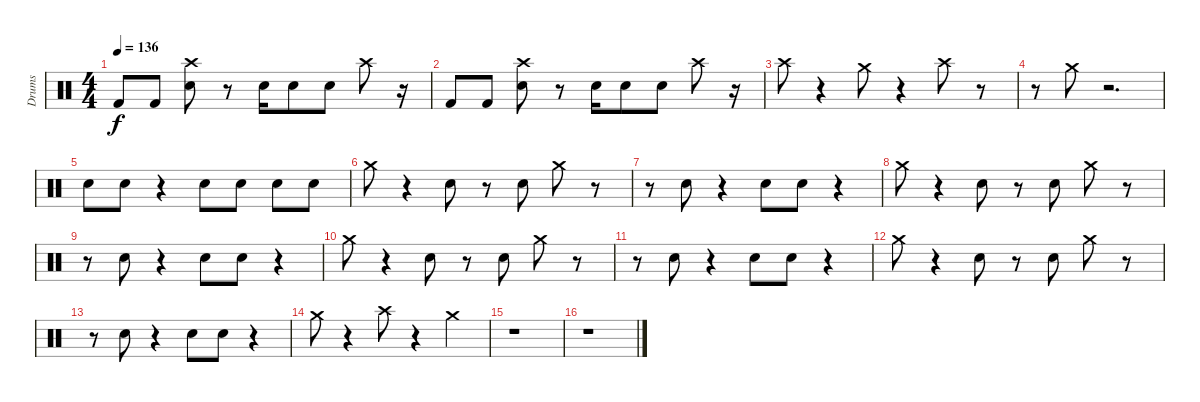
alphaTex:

\track ("Drums" "Drums") {instrument percussion}
\staff {score}
\articulation defaults
\ts (4 4)
\tempo 136
\clef neutral
\ks c "Kick (hit) 2".8{dy f} "Kick (hit) 2".8
("Crash high (hit)" "Snare (hit) 2").8 r.8 "Snare (hit) 2".16 "Snare (hit) 2".8 "Snare (hit) 2".8 "Crash high (hit)".8 r.16 |
"Kick (hit) 2".8 "Kick (hit) 2".8 ("Crash high (hit)" "Snare (hit) 2").8 r.8 "Snare (hit) 2".16 "Snare (hit) 2".8 "Snare (hit) 2".8 "Crash high (hit)".8 r.16 |
"Crash high (hit)".8 r.4 "Crash medium (hit)".8 r.4 "Crash high (hit)".8 r.8 |
r.8 "Crash medium (hit)".8 r.2{d} |
"Snare (hit) 2".8 "Snare (hit) 2".8 r.4 "Snare (hit) 2".8 "Snare (hit) 2".8 "Electric Snare (hit)".8 "Electric Snare (hit)".8 |
"Crash medium (hit)".8 r.4 "Snare (hit) 2".8 r.8 "Snare (hit) 2".8 "Crash medium (hit)".8 r.8 |
r.8 "Snare (hit) 2".8 r.4 "Snare (hit) 2".8 "Snare (hit) 2".8 r.4 |
"Crash medium (hit)".8 r.4 "Snare (hit) 2".8 r.8 "Snare (hit) 2".8 "Crash medium (hit)".8 r.8 |
r.8 "Snare (hit) 2".8 r.4 "Snare (hit) 2".8 "Snare (hit) 2".8 r.4 |
"Crash medium (hit)".8 r.4 "Snare (hit) 2".8 r.8 "Snare (hit) 2".8 "Crash medium (hit)".8 r.8 |
r.8 "Snare (hit) 2".8 r.4 "Snare (hit) 2".8 "Snare (hit) 2".8 r.4 |
"Crash medium (hit)".8 r.4 "Snare (hit) 2".8 r.8 "Snare (hit) 2".8 "Crash medium (hit)".8 r.8 |
r.8 "Snare (hit) 2".8 r.4 "Snare (hit) 2".8 "Snare (hit) 2".8 r.4 |
"Crash medium (hit)".8 r.4 "Crash high (hit)".8 r.4 "Crash medium (hit)".4 |
r.1 |
r.1
